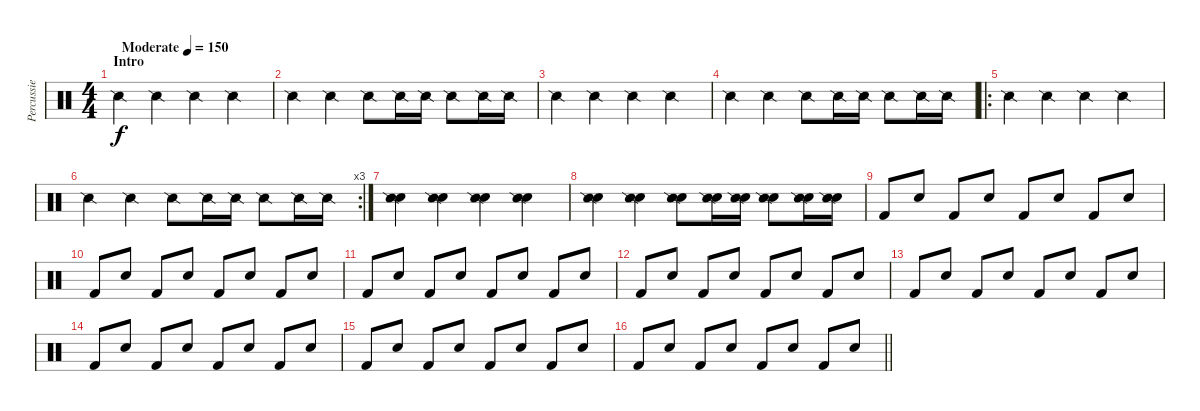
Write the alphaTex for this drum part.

\track ("Percussie" "Percussie") {instrument percussion}
\staff {score}
\articulation defaults
\ts (4 4)
\section ("" "Intro")
\tempo (150 "Moderate")
\clef neutral
\ks c "Snare (side stick) 2".4{dy f} "Snare (side stick) 2".4 "Snare (side stick) 2".4 "Snare (side stick) 2".4
|
"Snare (side stick) 2".4 "Snare (side stick) 2".4 "Snare (side stick) 2".8 "Snare (side stick) 2".16 "Snare (side stick) 2".16 "Snare (side stick) 2".8 "Snare (side stick) 2".16 "Snare (side stick) 2".16 |
"Snare (side stick) 2".4 "Snare (side stick) 2".4 "Snare (side stick) 2".4 "Snare (side stick) 2".4 |
"Snare (side stick) 2".4 "Snare (side stick) 2".4 "Snare (side stick) 2".8 "Snare (side stick) 2".16 "Snare (side stick) 2".16 "Snare (side stick) 2".8 "Snare (side stick) 2".16 "Snare (side stick) 2".16 |
\ro "Snare (side stick) 2".4 "Snare (side stick) 2".4 "Snare (side stick) 2".4 "Snare (side stick) 2".4
|
\rc 3 "Snare (side stick) 2".4 "Snare (side stick) 2".4 "Snare (side stick) 2".8 "Snare (side stick) 2".16 "Snare (side stick) 2".16 "Snare (side stick) 2".8 "Snare (side stick) 2".16 "Snare (side stick) 2".16
|
("Snare (hit) 2" "Snare (side stick) 2").4 ("Snare (hit) 2" "Snare (side stick) 2").4 ("Snare (hit) 2" "Snare (side stick) 2").4 ("Snare (hit) 2" "Snare (side stick) 2").4 |
("Snare (hit) 2" "Snare (side stick) 2").4 ("Snare (hit) 2" "Snare (side stick) 2").4 ("Snare (hit) 2" "Snare (side stick) 2").8 ("Snare (hit) 2" "Snare (side stick) 2").16 ("Snare (hit) 2" "Snare (side stick) 2").16 ("Snare (hit) 2" "Snare (side stick) 2").8 ("Snare (hit) 2" "Snare (side stick) 2").16 ("Snare (hit) 2" "Snare (side stick) 2").16 |
"Kick (hit) 2".8 "Snare (hit) 2".8 "Kick (hit) 2".8 "Snare (hit) 2".8 "Kick (hit) 2".8 "Snare (hit) 2".8 "Kick (hit) 2".8 "Snare (hit) 2".8 |
"Kick (hit) 2".8 "Snare (hit) 2".8 "Kick (hit) 2".8 "Snare (hit) 2".8 "Kick (hit) 2".8 "Snare (hit) 2".8 "Kick (hit) 2".8 "Snare (hit) 2".8 |
"Kick (hit) 2".8 "Snare (hit) 2".8 "Kick (hit) 2".8 "Snare (hit) 2".8 "Kick (hit) 2".8 "Snare (hit) 2".8 "Kick (hit) 2".8 "Snare (hit) 2".8 |
"Kick (hit) 2".8 "Snare (hit) 2".8 "Kick (hit) 2".8 "Snare (hit) 2".8 "Kick (hit) 2".8 "Snare (hit) 2".8 "Kick (hit) 2".8 "Snare (hit) 2".8 |
"Kick (hit) 2".8 "Snare (hit) 2".8 "Kick (hit) 2".8 "Snare (hit) 2".8 "Kick (hit) 2".8 "Snare (hit) 2".8 "Kick (hit) 2".8 "Snare (hit) 2".8 |
"Kick (hit) 2".8 "Snare (hit) 2".8 "Kick (hit) 2".8 "Snare (hit) 2".8 "Kick (hit) 2".8 "Snare (hit) 2".8 "Kick (hit) 2".8 "Snare (hit) 2".8 |
"Kick (hit) 2".8 "Snare (hit) 2".8 "Kick (hit) 2".8 "Snare (hit) 2".8 "Kick (hit) 2".8 "Snare (hit) 2".8 "Kick (hit) 2".8 "Snare (hit) 2".8 |
\barLineRight lightlight "Kick (hit) 2".8 "Snare (hit) 2".8 "Kick (hit) 2".8 "Snare (hit) 2".8 "Kick (hit) 2".8 "Snare (hit) 2".8 "Kick (hit) 2".8 "Snare (hit) 2".8
